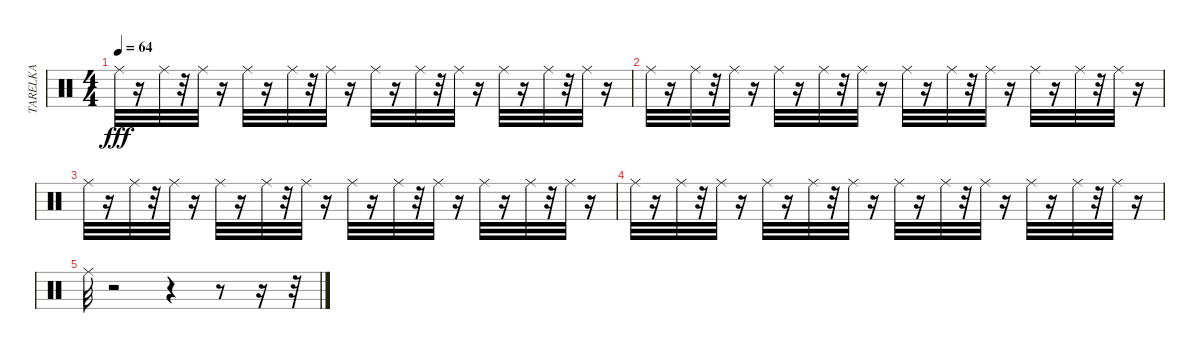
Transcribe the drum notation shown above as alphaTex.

\track ("TARELKA" "TARELKA") {instrument percussion}
\staff {score}
\articulation defaults
\ts (4 4)
\tempo 64
\clef neutral
\ks c "Ride (middle)".32{dy fff}
r.16 "Ride (middle)".32 r.32 "Ride (middle)".32 r.16 "Ride (middle)".32 r.16 "Ride (middle)".32 r.32 "Ride (middle)".32 r.16 "Ride (middle)".32 r.16 "Ride (middle)".32 r.32 "Ride (middle)".32 r.16 "Ride (middle)".32 r.16 "Ride (middle)".32 r.32 "Ride (middle)".32 r.16 |
"Ride (middle)".32 r.16 "Ride (middle)".32 r.32 "Ride (middle)".32 r.16 "Ride (middle)".32 r.16 "Ride (middle)".32 r.32 "Ride (middle)".32 r.16 "Ride (middle)".32 r.16 "Ride (middle)".32 r.32 "Ride (middle)".32 r.16 "Ride (middle)".32 r.16 "Ride (middle)".32 r.32 "Ride (middle)".32 r.16 |
"Ride (middle)".32 r.16 "Ride (middle)".32 r.32 "Ride (middle)".32 r.16 "Ride (middle)".32 r.16 "Ride (middle)".32 r.32 "Ride (middle)".32 r.16 "Ride (middle)".32 r.16 "Ride (middle)".32 r.32 "Ride (middle)".32 r.16 "Ride (middle)".32 r.16 "Ride (middle)".32 r.32 "Ride (middle)".32 r.16 |
"Ride (middle)".32 r.16 "Ride (middle)".32 r.32 "Ride (middle)".32 r.16 "Ride (middle)".32 r.16 "Ride (middle)".32 r.32 "Ride (middle)".32 r.16 "Ride (middle)".32 r.16 "Ride (middle)".32 r.32 "Ride (middle)".32 r.16 "Ride (middle)".32 r.16 "Ride (middle)".32 r.32 "Ride (middle)".32 r.16 |
"Ride (middle)".32 r.2 r.4 r.8 r.16 r.32
